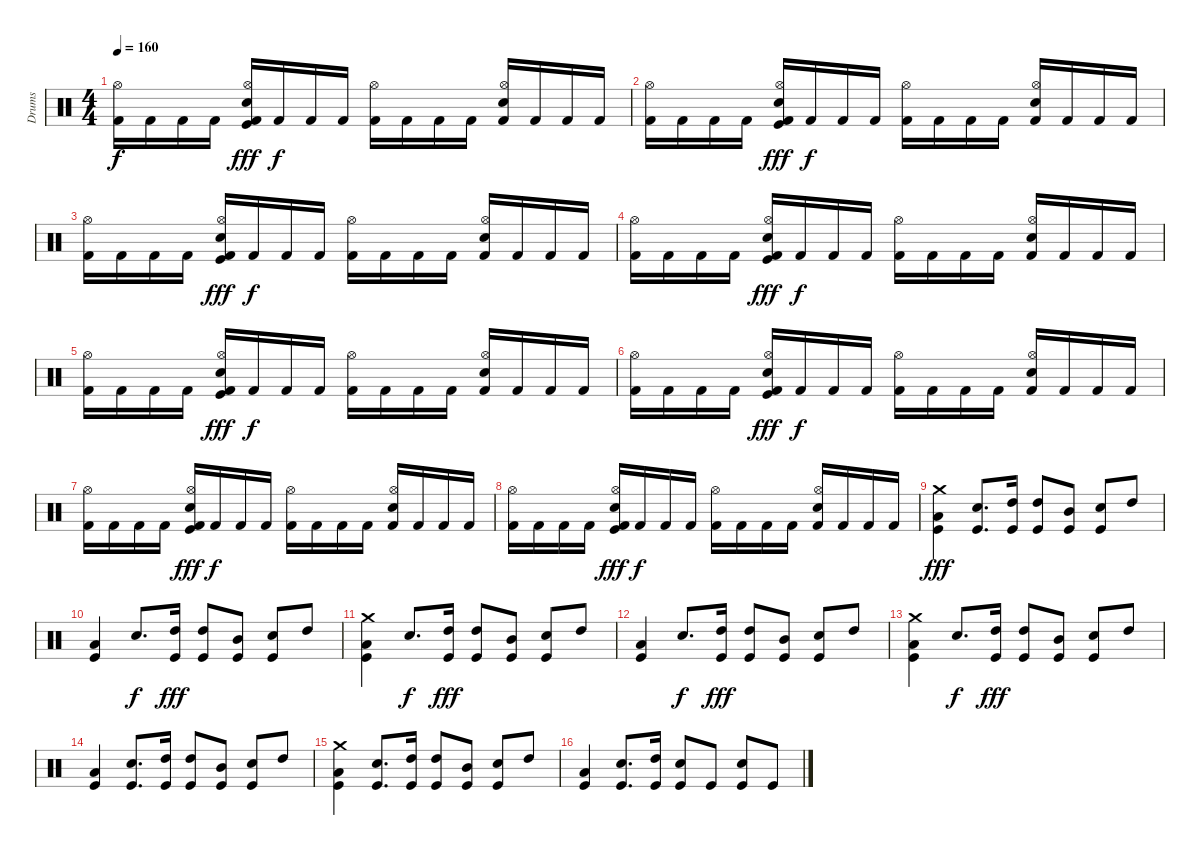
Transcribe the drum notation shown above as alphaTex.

\track ("Drums" "Drums") {instrument percussion}
\staff {score}
\articulation defaults
\ts (4 4)
\tempo 160
\clef neutral
\ks c
("Kick (hit) 2" "Hi-Hat (open)").16{dy f} "Kick (hit) 2".16 "Kick (hit) 2".16 "Kick (hit) 2".16 ("Kick (hit) 2" "Snare (hit) 2" "Kick (hit)" "Hi-Hat (open)").16{dy fff} "Kick (hit) 2".16{dy f} "Kick (hit) 2".16 "Kick (hit) 2".16 ("Kick (hit) 2" "Hi-Hat (open)").16 "Kick (hit) 2".16 "Kick (hit) 2".16 "Kick (hit) 2".16 ("Kick (hit) 2" "Snare (hit) 2" "Hi-Hat (open)").16 "Kick (hit) 2".16 "Kick (hit) 2".16 "Kick (hit) 2".16 |
("Kick (hit) 2" "Hi-Hat (open)").16 "Kick (hit) 2".16 "Kick (hit) 2".16 "Kick (hit) 2".16 ("Kick (hit) 2" "Snare (hit) 2" "Kick (hit)" "Hi-Hat (open)").16{dy fff} "Kick (hit) 2".16{dy f} "Kick (hit) 2".16 "Kick (hit) 2".16 ("Kick (hit) 2" "Hi-Hat (open)").16 "Kick (hit) 2".16 "Kick (hit) 2".16 "Kick (hit) 2".16 ("Kick (hit) 2" "Snare (hit) 2" "Hi-Hat (open)").16 "Kick (hit) 2".16 "Kick (hit) 2".16 "Kick (hit) 2".16 |
("Kick (hit) 2" "Hi-Hat (open)").16 "Kick (hit) 2".16 "Kick (hit) 2".16 "Kick (hit) 2".16 ("Kick (hit) 2" "Snare (hit) 2" "Kick (hit)" "Hi-Hat (open)").16{dy fff} "Kick (hit) 2".16{dy f} "Kick (hit) 2".16 "Kick (hit) 2".16 ("Kick (hit) 2" "Hi-Hat (open)").16 "Kick (hit) 2".16 "Kick (hit) 2".16 "Kick (hit) 2".16 ("Kick (hit) 2" "Snare (hit) 2" "Hi-Hat (open)").16 "Kick (hit) 2".16 "Kick (hit) 2".16 "Kick (hit) 2".16 |
("Kick (hit) 2" "Hi-Hat (open)").16 "Kick (hit) 2".16 "Kick (hit) 2".16 "Kick (hit) 2".16 ("Kick (hit) 2" "Snare (hit) 2" "Kick (hit)" "Hi-Hat (open)").16{dy fff} "Kick (hit) 2".16{dy f} "Kick (hit) 2".16 "Kick (hit) 2".16 ("Kick (hit) 2" "Hi-Hat (open)").16 "Kick (hit) 2".16 "Kick (hit) 2".16 "Kick (hit) 2".16 ("Kick (hit) 2" "Snare (hit) 2" "Hi-Hat (open)").16 "Kick (hit) 2".16 "Kick (hit) 2".16 "Kick (hit) 2".16 |
("Kick (hit) 2" "Hi-Hat (open)").16 "Kick (hit) 2".16 "Kick (hit) 2".16 "Kick (hit) 2".16 ("Kick (hit) 2" "Snare (hit) 2" "Kick (hit)" "Hi-Hat (open)").16{dy fff} "Kick (hit) 2".16{dy f} "Kick (hit) 2".16 "Kick (hit) 2".16 ("Kick (hit) 2" "Hi-Hat (open)").16 "Kick (hit) 2".16 "Kick (hit) 2".16 "Kick (hit) 2".16 ("Kick (hit) 2" "Snare (hit) 2" "Hi-Hat (open)").16 "Kick (hit) 2".16 "Kick (hit) 2".16 "Kick (hit) 2".16 |
("Kick (hit) 2" "Hi-Hat (open)").16 "Kick (hit) 2".16 "Kick (hit) 2".16 "Kick (hit) 2".16 ("Kick (hit) 2" "Snare (hit) 2" "Kick (hit)" "Hi-Hat (open)").16{dy fff} "Kick (hit) 2".16{dy f} "Kick (hit) 2".16 "Kick (hit) 2".16 ("Kick (hit) 2" "Hi-Hat (open)").16 "Kick (hit) 2".16 "Kick (hit) 2".16 "Kick (hit) 2".16 ("Kick (hit) 2" "Snare (hit) 2" "Hi-Hat (open)").16 "Kick (hit) 2".16 "Kick (hit) 2".16 "Kick (hit) 2".16 |
("Kick (hit) 2" "Hi-Hat (open)").16 "Kick (hit) 2".16 "Kick (hit) 2".16 "Kick (hit) 2".16 ("Kick (hit) 2" "Snare (hit) 2" "Kick (hit)" "Hi-Hat (open)").16{dy fff} "Kick (hit) 2".16{dy f} "Kick (hit) 2".16 "Kick (hit) 2".16 ("Kick (hit) 2" "Hi-Hat (open)").16 "Kick (hit) 2".16 "Kick (hit) 2".16 "Kick (hit) 2".16 ("Kick (hit) 2" "Snare (hit) 2" "Hi-Hat (open)").16 "Kick (hit) 2".16 "Kick (hit) 2".16 "Kick (hit) 2".16 |
("Kick (hit) 2" "Hi-Hat (open)").16 "Kick (hit) 2".16 "Kick (hit) 2".16 "Kick (hit) 2".16 ("Kick (hit) 2" "Snare (hit) 2" "Kick (hit)" "Hi-Hat (open)").16{dy fff} "Kick (hit) 2".16{dy f} "Kick (hit) 2".16 "Kick (hit) 2".16 ("Kick (hit) 2" "Hi-Hat (open)").16 "Kick (hit) 2".16 "Kick (hit) 2".16 "Kick (hit) 2".16 ("Kick (hit) 2" "Snare (hit) 2" "Hi-Hat (open)").16 "Kick (hit) 2".16 "Kick (hit) 2".16 "Kick (hit) 2".16 |
("Low Floor Tom (hit)" "Kick (hit)" "Crash medium (hit)").4{dy fff} ("Snare (hit) 2" "Kick (hit)").8{d} ("High Tom (hit)" "Kick (hit)").16 ("High Tom (hit)" "Kick (hit)").8 ("Mid Tom (hit)" "Kick (hit)").8 ("Snare (hit) 2" "Kick (hit)").8 "High Tom (hit)".8 |
("Low Floor Tom (hit)" "Kick (hit)").4 "Snare (hit) 2".8{d dy f} ("High Tom (hit)" "Kick (hit)").16{dy fff} ("High Tom (hit)" "Kick (hit)").8 ("Mid Tom (hit)" "Kick (hit)").8 ("Snare (hit) 2" "Kick (hit)").8 "High Tom (hit)".8 |
("Low Floor Tom (hit)" "Kick (hit)" "Crash medium (hit)").4 "Snare (hit) 2".8{d dy f} ("High Tom (hit)" "Kick (hit)").16{dy fff} ("High Tom (hit)" "Kick (hit)").8 ("Mid Tom (hit)" "Kick (hit)").8 ("Snare (hit) 2" "Kick (hit)").8 "High Tom (hit)".8 |
("Low Floor Tom (hit)" "Kick (hit)").4 "Snare (hit) 2".8{d dy f} ("High Tom (hit)" "Kick (hit)").16{dy fff} ("High Tom (hit)" "Kick (hit)").8 ("Mid Tom (hit)" "Kick (hit)").8 ("Snare (hit) 2" "Kick (hit)").8 "High Tom (hit)".8 |
("Low Floor Tom (hit)" "Kick (hit)" "Crash medium (hit)").4 "Snare (hit) 2".8{d dy f} ("High Tom (hit)" "Kick (hit)").16{dy fff} ("High Tom (hit)" "Kick (hit)").8 ("Mid Tom (hit)" "Kick (hit)").8 ("Snare (hit) 2" "Kick (hit)").8 "High Tom (hit)".8 |
("Low Floor Tom (hit)" "Kick (hit)").4 ("Snare (hit) 2" "Kick (hit)").8{d} ("High Tom (hit)" "Kick (hit)").16 ("High Tom (hit)" "Kick (hit)").8 ("Mid Tom (hit)" "Kick (hit)").8 ("Snare (hit) 2" "Kick (hit)").8 "High Tom (hit)".8 |
("Low Floor Tom (hit)" "Kick (hit)" "Crash medium (hit)").4 ("Snare (hit) 2" "Kick (hit)").8{d} ("High Tom (hit)" "Kick (hit)").16 ("High Tom (hit)" "Kick (hit)").8 ("Mid Tom (hit)" "Kick (hit)").8 ("Snare (hit) 2" "Kick (hit)").8 "High Tom (hit)".8 |
("Low Floor Tom (hit)" "Kick (hit)").4 ("Snare (hit) 2" "Kick (hit)").8{d} ("High Tom (hit)" "Kick (hit)").16 ("Snare (hit) 2" "Kick (hit)").8 "Kick (hit)".8 ("Snare (hit) 2" "Kick (hit)").8 "Kick (hit)".8
